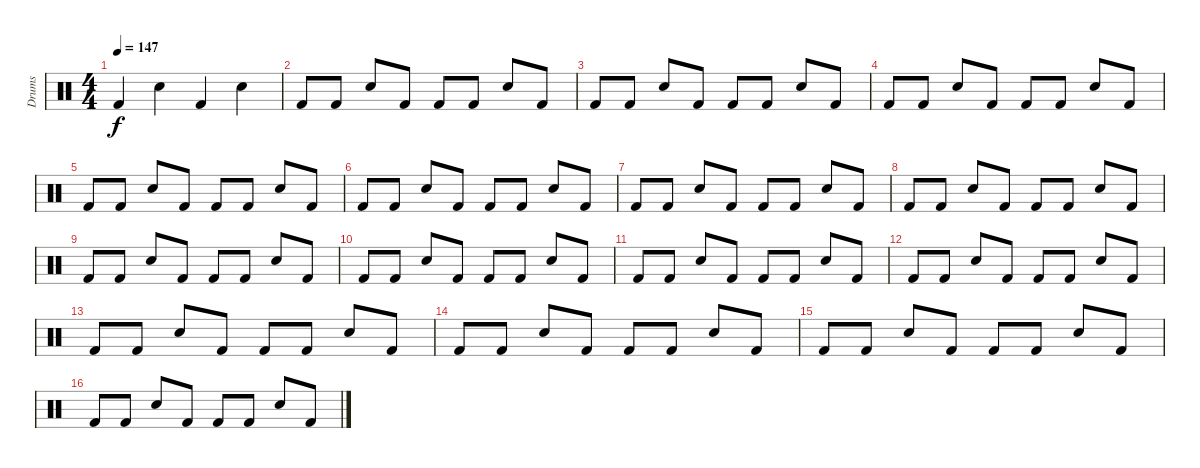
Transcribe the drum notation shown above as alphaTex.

\track ("Drums" "Drums") {instrument percussion}
\staff {score}
\articulation defaults
\ts (4 4)
\tempo 147
\clef neutral
\ks c "Kick (hit) 2".4{dy f} "Snare (hit) 2".4 "Kick (hit) 2".4 "Snare (hit) 2".4
|
"Kick (hit) 2".8 "Kick (hit) 2".8 "Snare (hit) 2".8 "Kick (hit) 2".8 "Kick (hit) 2".8 "Kick (hit) 2".8 "Snare (hit) 2".8 "Kick (hit) 2".8 |
"Kick (hit) 2".8 "Kick (hit) 2".8 "Snare (hit) 2".8 "Kick (hit) 2".8 "Kick (hit) 2".8 "Kick (hit) 2".8 "Snare (hit) 2".8 "Kick (hit) 2".8 |
"Kick (hit) 2".8 "Kick (hit) 2".8 "Snare (hit) 2".8 "Kick (hit) 2".8 "Kick (hit) 2".8 "Kick (hit) 2".8 "Snare (hit) 2".8 "Kick (hit) 2".8 |
"Kick (hit) 2".8 "Kick (hit) 2".8 "Snare (hit) 2".8 "Kick (hit) 2".8 "Kick (hit) 2".8 "Kick (hit) 2".8 "Snare (hit) 2".8 "Kick (hit) 2".8 |
"Kick (hit) 2".8 "Kick (hit) 2".8 "Snare (hit) 2".8 "Kick (hit) 2".8 "Kick (hit) 2".8 "Kick (hit) 2".8 "Snare (hit) 2".8 "Kick (hit) 2".8 |
"Kick (hit) 2".8 "Kick (hit) 2".8 "Snare (hit) 2".8 "Kick (hit) 2".8 "Kick (hit) 2".8 "Kick (hit) 2".8 "Snare (hit) 2".8 "Kick (hit) 2".8 |
"Kick (hit) 2".8 "Kick (hit) 2".8 "Snare (hit) 2".8 "Kick (hit) 2".8 "Kick (hit) 2".8 "Kick (hit) 2".8 "Snare (hit) 2".8 "Kick (hit) 2".8 |
"Kick (hit) 2".8 "Kick (hit) 2".8 "Snare (hit) 2".8 "Kick (hit) 2".8 "Kick (hit) 2".8 "Kick (hit) 2".8 "Snare (hit) 2".8 "Kick (hit) 2".8 |
"Kick (hit) 2".8 "Kick (hit) 2".8 "Snare (hit) 2".8 "Kick (hit) 2".8 "Kick (hit) 2".8 "Kick (hit) 2".8 "Snare (hit) 2".8 "Kick (hit) 2".8 |
"Kick (hit) 2".8 "Kick (hit) 2".8 "Snare (hit) 2".8 "Kick (hit) 2".8 "Kick (hit) 2".8 "Kick (hit) 2".8 "Snare (hit) 2".8 "Kick (hit) 2".8 |
"Kick (hit) 2".8 "Kick (hit) 2".8 "Snare (hit) 2".8 "Kick (hit) 2".8 "Kick (hit) 2".8 "Kick (hit) 2".8 "Snare (hit) 2".8 "Kick (hit) 2".8 |
"Kick (hit) 2".8 "Kick (hit) 2".8 "Snare (hit) 2".8 "Kick (hit) 2".8 "Kick (hit) 2".8 "Kick (hit) 2".8 "Snare (hit) 2".8 "Kick (hit) 2".8 |
"Kick (hit) 2".8 "Kick (hit) 2".8 "Snare (hit) 2".8 "Kick (hit) 2".8 "Kick (hit) 2".8 "Kick (hit) 2".8 "Snare (hit) 2".8 "Kick (hit) 2".8 |
"Kick (hit) 2".8 "Kick (hit) 2".8 "Snare (hit) 2".8 "Kick (hit) 2".8 "Kick (hit) 2".8 "Kick (hit) 2".8 "Snare (hit) 2".8 "Kick (hit) 2".8 |
"Kick (hit) 2".8 "Kick (hit) 2".8 "Snare (hit) 2".8 "Kick (hit) 2".8 "Kick (hit) 2".8 "Kick (hit) 2".8 "Snare (hit) 2".8 "Kick (hit) 2".8
